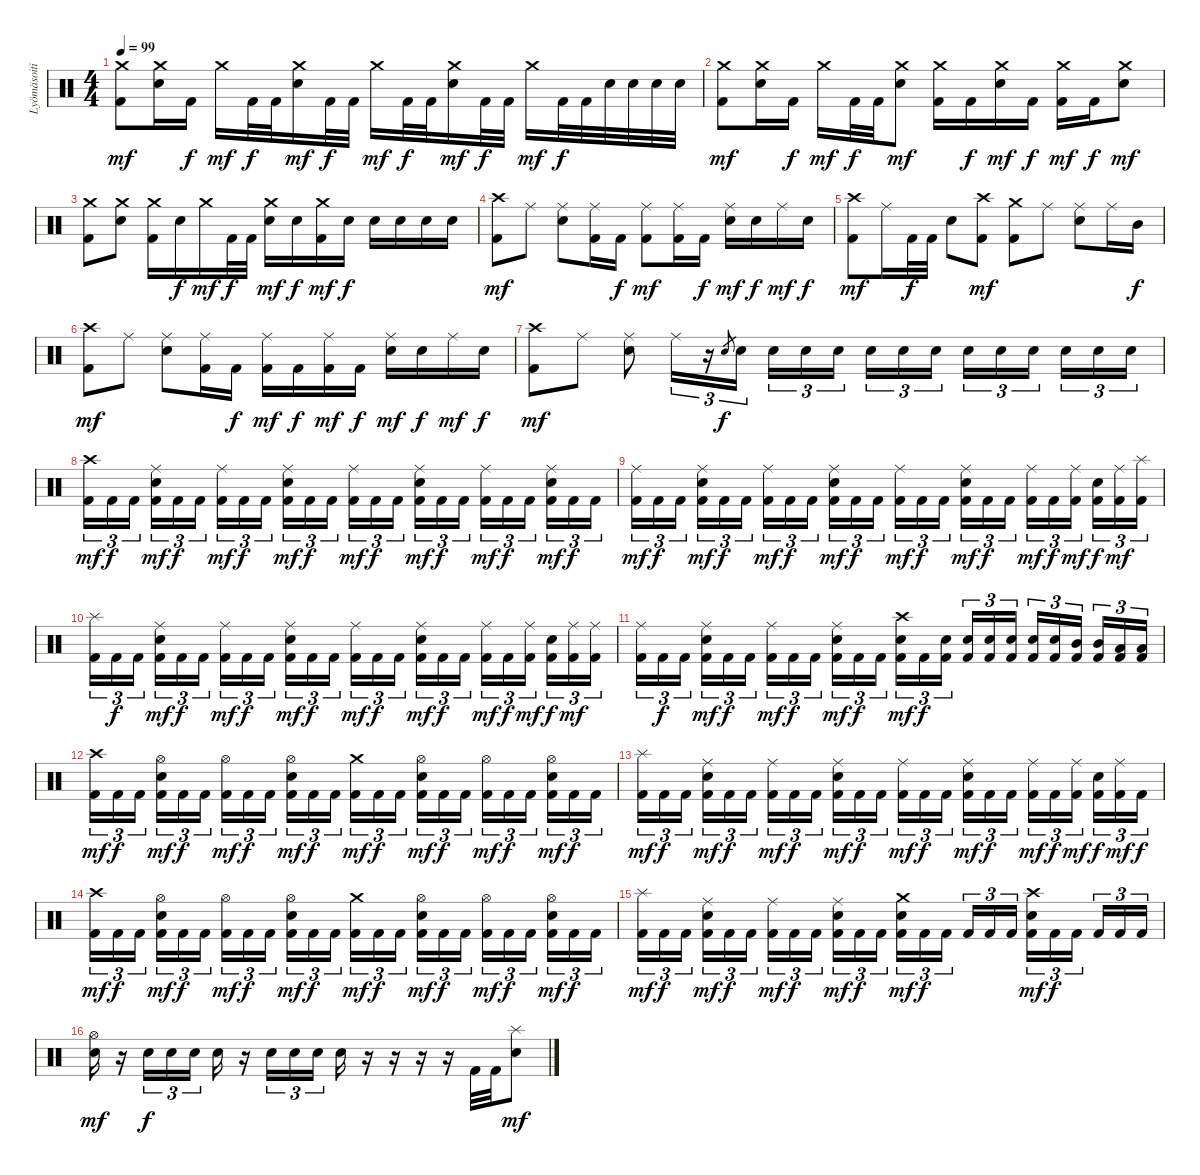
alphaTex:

\track ("Lyömäsoitin" "Lyömäsoiti") {instrument percussion}
\staff {score}
\articulation defaults
\ts (4 4)
\tempo 99
\clef neutral
\ks c
("Crash medium (hit)" "Kick (hit) 2").8{dy mf} ("Electric Snare (hit)" "Crash medium (hit)").16 "Kick (hit) 2".16{dy f} "Crash medium (hit)".16{dy mf} "Kick (hit) 2".32{dy f} "Kick (hit) 2".32 ("Electric Snare (hit)" "Crash medium (hit)").16{dy mf} "Kick (hit) 2".32{dy f} "Kick (hit) 2".32 "Crash medium (hit)".16{dy mf} "Kick (hit) 2".32{dy f} "Kick (hit) 2".32 ("Electric Snare (hit)" "Crash medium (hit)").16{dy mf} "Kick (hit) 2".32{dy f} "Kick (hit) 2".32 "Crash medium (hit)".16{dy mf} "Kick (hit) 2".32{dy f} "Kick (hit) 2".32 "Electric Snare (hit)".32 "Electric Snare (hit)".32 "Electric Snare (hit)".32 "Electric Snare (hit)".32 |
("Crash medium (hit)" "Kick (hit) 2").8{dy mf} ("Electric Snare (hit)" "Crash medium (hit)").16 "Kick (hit) 2".16{dy f} "Crash medium (hit)".16{dy mf} "Kick (hit) 2".32{dy f} "Kick (hit) 2".32 ("Electric Snare (hit)" "Crash medium (hit)").8{dy mf} ("Crash medium (hit)" "Kick (hit) 2").16 "Kick (hit) 2".16{dy f} ("Electric Snare (hit)" "Crash medium (hit)").16{dy mf} "Kick (hit) 2".16{dy f} ("Crash medium (hit)" "Kick (hit) 2").16{dy mf} "Kick (hit) 2".16{dy f} ("Electric Snare (hit)" "Crash medium (hit)").8{dy mf} |
("Crash medium (hit)" "Kick (hit) 2").8 ("Electric Snare (hit)" "Crash medium (hit)").8 ("Crash medium (hit)" "Kick (hit) 2").16 "Electric Snare (hit)".16{dy f} "Crash medium (hit)".16{dy mf} "Kick (hit) 2".32{dy f} "Kick (hit) 2".32 ("Electric Snare (hit)" "Crash medium (hit)").16{dy mf} "Electric Snare (hit)".16{dy f} ("Crash medium (hit)" "Kick (hit) 2").16{dy mf} "Electric Snare (hit)".16{dy f} "Electric Snare (hit)".16 "Electric Snare (hit)".16 "Electric Snare (hit)".16 "Electric Snare (hit)".16 |
("Crash high (hit)" "Kick (hit) 2").8{dy mf} "Ride (middle)".8 ("Electric Snare (hit)" "Ride (middle)").8 ("Ride (middle)" "Kick (hit) 2").16 "Kick (hit) 2".16{dy f} ("Ride (middle)" "Kick (hit) 2").8{dy mf} ("Ride (middle)" "Kick (hit) 2").16 "Kick (hit) 2".16{dy f} ("Electric Snare (hit)" "Ride (middle)").16{dy mf} "Electric Snare (hit)".16{dy f} "Ride (middle)".16{dy mf} "Electric Snare (hit)".16{dy f} |
("Crash high (hit)" "Kick (hit) 2").8{dy mf} "Ride (middle)".16 "Kick (hit) 2".32{dy f} "Kick (hit) 2".32 "Electric Snare (hit)".8 ("Crash high (hit)" "Kick (hit) 2").8{dy mf} ("Crash medium (hit)" "Kick (hit) 2").8 "Ride (middle)".8 ("Electric Snare (hit)" "Ride (middle)").8 "Ride (middle)".16 "Mid Tom (hit)".16{dy f} |
("Crash high (hit)" "Kick (hit) 2").8{dy mf} "Ride (middle)".8 ("Electric Snare (hit)" "Ride (middle)").8 ("Ride (middle)" "Kick (hit) 2").16 "Kick (hit) 2".16{dy f} ("Ride (middle)" "Kick (hit) 2").16{dy mf} "Kick (hit) 2".16{dy f} ("Ride (middle)" "Kick (hit) 2").16{dy mf} "Kick (hit) 2".16{dy f} ("Electric Snare (hit)" "Ride (middle)").16{dy mf} "Electric Snare (hit)".16{dy f} "Ride (middle)".16{dy mf} "Electric Snare (hit)".16{dy f} |
("Crash high (hit)" "Kick (hit) 2").8{dy mf} "Ride (middle)".8 ("Electric Snare (hit)" "Ride (middle)").8 "Ride (middle)".16{tu (3 2)} r.16{tu (3 2)} "Electric Snare (hit)".8{gr dy f} "Electric Snare (hit)".16{tu (3 2)} "Electric Snare (hit)".16{tu (3 2)} "Electric Snare (hit)".16{tu (3 2)} "Electric Snare (hit)".16{tu (3 2)} "Electric Snare (hit)".16{tu (3 2)} "Electric Snare (hit)".16{tu (3 2)} "Electric Snare (hit)".16{tu (3 2)} "Electric Snare (hit)".16{tu (3 2)} "Electric Snare (hit)".16{tu (3 2)} "Electric Snare (hit)".16{tu (3 2)} "Electric Snare (hit)".16{tu (3 2)} "Electric Snare (hit)".16{tu (3 2)} "Electric Snare (hit)".16{tu (3 2)} |
("Crash high (hit)" "Kick (hit) 2").16{tu (3 2) dy mf} "Kick (hit) 2".16{tu (3 2) dy f} "Kick (hit) 2".16{tu (3 2)} ("Electric Snare (hit)" "Ride (middle)" "Kick (hit) 2").16{tu (3 2) dy mf} "Kick (hit) 2".16{tu (3 2) dy f} "Kick (hit) 2".16{tu (3 2)} ("Ride (middle)" "Kick (hit) 2").16{tu (3 2) dy mf} "Kick (hit) 2".16{tu (3 2) dy f} "Kick (hit) 2".16{tu (3 2)} ("Electric Snare (hit)" "Ride (middle)" "Kick (hit) 2").16{tu (3 2) dy mf} "Kick (hit) 2".16{tu (3 2) dy f} "Kick (hit) 2".16{tu (3 2)} ("Ride (middle)" "Kick (hit) 2").16{tu (3 2) dy mf} "Kick (hit) 2".16{tu (3 2) dy f} "Kick (hit) 2".16{tu (3 2)} ("Electric Snare (hit)" "Ride (middle)" "Kick (hit) 2").16{tu (3 2) dy mf} "Kick (hit) 2".16{tu (3 2) dy f} "Kick (hit) 2".16{tu (3 2)} ("Ride (middle)" "Kick (hit) 2").16{tu (3 2) dy mf} "Kick (hit) 2".16{tu (3 2) dy f} "Kick (hit) 2".16{tu (3 2)} ("Electric Snare (hit)" "Ride (middle)" "Kick (hit) 2").16{tu (3 2) dy mf} "Kick (hit) 2".16{tu (3 2) dy f} "Kick (hit) 2".16{tu (3 2)} |
("Ride (middle)" "Kick (hit) 2").16{tu (3 2) dy mf} "Kick (hit) 2".16{tu (3 2) dy f} "Kick (hit) 2".16{tu (3 2)} ("Electric Snare (hit)" "Ride (middle)" "Kick (hit) 2").16{tu (3 2) dy mf} "Kick (hit) 2".16{tu (3 2) dy f} "Kick (hit) 2".16{tu (3 2)} ("Ride (middle)" "Kick (hit) 2").16{tu (3 2) dy mf} "Kick (hit) 2".16{tu (3 2) dy f} "Kick (hit) 2".16{tu (3 2)} ("Electric Snare (hit)" "Ride (middle)" "Kick (hit) 2").16{tu (3 2) dy mf} "Kick (hit) 2".16{tu (3 2) dy f} "Kick (hit) 2".16{tu (3 2)} ("Ride (middle)" "Kick (hit) 2").16{tu (3 2) dy mf} "Kick (hit) 2".16{tu (3 2) dy f} "Kick (hit) 2".16{tu (3 2)} ("Electric Snare (hit)" "Ride (middle)" "Kick (hit) 2").16{tu (3 2) dy mf} "Kick (hit) 2".16{tu (3 2) dy f} "Kick (hit) 2".16{tu (3 2)} ("Ride (middle)" "Kick (hit) 2").16{tu (3 2) dy mf} "Kick (hit) 2".16{tu (3 2) dy f} ("Ride (middle)" "Kick (hit) 2").16{tu (3 2) dy mf} ("Electric Snare (hit)" "Kick (hit) 2").16{tu (3 2) dy f} ("Ride (middle)" "Kick (hit) 2").16{tu (3 2) dy mf} ("Splash (hit)" "Kick (hit) 2").16{tu (3 2)} |
("Splash (hit)" "Kick (hit) 2").16{tu (3 2)} "Kick (hit) 2".16{tu (3 2) dy f} "Kick (hit) 2".16{tu (3 2)} ("Electric Snare (hit)" "Ride (middle)" "Kick (hit) 2").16{tu (3 2) dy mf} "Kick (hit) 2".16{tu (3 2) dy f} "Kick (hit) 2".16{tu (3 2)} ("Ride (middle)" "Kick (hit) 2").16{tu (3 2) dy mf} "Kick (hit) 2".16{tu (3 2) dy f} "Kick (hit) 2".16{tu (3 2)} ("Electric Snare (hit)" "Ride (middle)" "Kick (hit) 2").16{tu (3 2) dy mf} "Kick (hit) 2".16{tu (3 2) dy f} "Kick (hit) 2".16{tu (3 2)} ("Ride (middle)" "Kick (hit) 2").16{tu (3 2) dy mf} "Kick (hit) 2".16{tu (3 2) dy f} "Kick (hit) 2".16{tu (3 2)} ("Electric Snare (hit)" "Ride (middle)" "Kick (hit) 2").16{tu (3 2) dy mf} "Kick (hit) 2".16{tu (3 2) dy f} "Kick (hit) 2".16{tu (3 2)} ("Ride (middle)" "Kick (hit) 2").16{tu (3 2) dy mf} "Kick (hit) 2".16{tu (3 2) dy f} ("Ride (middle)" "Kick (hit) 2").16{tu (3 2) dy mf} ("Electric Snare (hit)" "Kick (hit) 2").16{tu (3 2) dy f} ("Ride (middle)" "Kick (hit) 2").16{tu (3 2) dy mf} ("Ride (middle)" "Kick (hit) 2").16{tu (3 2)} |
("Ride (middle)" "Kick (hit) 2").16{tu (3 2)} "Kick (hit) 2".16{tu (3 2) dy f} "Kick (hit) 2".16{tu (3 2)} ("Electric Snare (hit)" "Ride (middle)" "Kick (hit) 2").16{tu (3 2) dy mf} "Kick (hit) 2".16{tu (3 2) dy f} "Kick (hit) 2".16{tu (3 2)} ("Ride (middle)" "Kick (hit) 2").16{tu (3 2) dy mf} "Kick (hit) 2".16{tu (3 2) dy f} "Kick (hit) 2".16{tu (3 2)} ("Electric Snare (hit)" "Ride (middle)" "Kick (hit) 2").16{tu (3 2) dy mf} "Kick (hit) 2".16{tu (3 2) dy f} "Kick (hit) 2".16{tu (3 2)} ("Electric Snare (hit)" "Crash high (hit)" "Kick (hit) 2").16{tu (3 2) dy mf} "Kick (hit) 2".16{tu (3 2) dy f} ("Electric Snare (hit)" "Kick (hit) 2").16{tu (3 2)} ("Electric Snare (hit)" "Kick (hit) 2").16{tu (3 2)} ("Electric Snare (hit)" "Kick (hit) 2").16{tu (3 2)} ("Electric Snare (hit)" "Kick (hit) 2").16{tu (3 2)} ("Electric Snare (hit)" "Kick (hit) 2").16{tu (3 2)} ("Electric Snare (hit)" "Kick (hit) 2").16{tu (3 2)} ("Mid Tom (hit)" "Kick (hit) 2").16{tu (3 2)} ("Mid Tom (hit)" "Kick (hit) 2").16{tu (3 2)} ("Low Tom (hit)" "Kick (hit) 2").16{tu (3 2)} ("Low Tom (hit)" "Kick (hit) 2").16{tu (3 2)} |
("Crash high (hit)" "Kick (hit) 2").16{tu (3 2) dy mf} "Kick (hit) 2".16{tu (3 2) dy f} "Kick (hit) 2".16{tu (3 2)} ("Electric Snare (hit)" "Hi-Hat (open)" "Kick (hit) 2").16{tu (3 2) dy mf} "Kick (hit) 2".16{tu (3 2) dy f} "Kick (hit) 2".16{tu (3 2)} ("Hi-Hat (open)" "Kick (hit) 2").16{tu (3 2) dy mf} "Kick (hit) 2".16{tu (3 2) dy f} "Kick (hit) 2".16{tu (3 2)} ("Electric Snare (hit)" "Hi-Hat (open)" "Kick (hit) 2").16{tu (3 2) dy mf} "Kick (hit) 2".16{tu (3 2) dy f} "Kick (hit) 2".16{tu (3 2)} ("Crash medium (hit)" "Kick (hit) 2").16{tu (3 2) dy mf} "Kick (hit) 2".16{tu (3 2) dy f} "Kick (hit) 2".16{tu (3 2)} ("Electric Snare (hit)" "Hi-Hat (open)" "Kick (hit) 2").16{tu (3 2) dy mf} "Kick (hit) 2".16{tu (3 2) dy f} "Kick (hit) 2".16{tu (3 2)} ("Hi-Hat (open)" "Kick (hit) 2").16{tu (3 2) dy mf} "Kick (hit) 2".16{tu (3 2) dy f} "Kick (hit) 2".16{tu (3 2)} ("Electric Snare (hit)" "Hi-Hat (open)" "Kick (hit) 2").16{tu (3 2) dy mf} "Kick (hit) 2".16{tu (3 2) dy f} "Kick (hit) 2".16{tu (3 2)} |
("Splash (hit)" "Kick (hit) 2").16{tu (3 2) dy mf} "Kick (hit) 2".16{tu (3 2) dy f} "Kick (hit) 2".16{tu (3 2)} ("Electric Snare (hit)" "Ride (middle)" "Kick (hit) 2").16{tu (3 2) dy mf} "Kick (hit) 2".16{tu (3 2) dy f} "Kick (hit) 2".16{tu (3 2)} ("Ride (middle)" "Kick (hit) 2").16{tu (3 2) dy mf} "Kick (hit) 2".16{tu (3 2) dy f} "Kick (hit) 2".16{tu (3 2)} ("Electric Snare (hit)" "Ride (middle)" "Kick (hit) 2").16{tu (3 2) dy mf} "Kick (hit) 2".16{tu (3 2) dy f} "Kick (hit) 2".16{tu (3 2)} ("Ride (middle)" "Kick (hit) 2").16{tu (3 2) dy mf} "Kick (hit) 2".16{tu (3 2) dy f} "Kick (hit) 2".16{tu (3 2)} ("Electric Snare (hit)" "Ride (middle)" "Kick (hit) 2").16{tu (3 2) dy mf} "Kick (hit) 2".16{tu (3 2) dy f} "Kick (hit) 2".16{tu (3 2)} ("Ride (middle)" "Kick (hit) 2").16{tu (3 2) dy mf} "Kick (hit) 2".16{tu (3 2) dy f} ("Ride (middle)" "Kick (hit) 2").16{tu (3 2) dy mf} ("Electric Snare (hit)" "Kick (hit) 2").16{tu (3 2) dy f} ("Ride (middle)" "Kick (hit) 2").16{tu (3 2) dy mf} "Kick (hit) 2".16{tu (3 2) dy f} |
("Crash high (hit)" "Kick (hit) 2").16{tu (3 2) dy mf} "Kick (hit) 2".16{tu (3 2) dy f} "Kick (hit) 2".16{tu (3 2)} ("Electric Snare (hit)" "Hi-Hat (open)" "Kick (hit) 2").16{tu (3 2) dy mf} "Kick (hit) 2".16{tu (3 2) dy f} "Kick (hit) 2".16{tu (3 2)} ("Hi-Hat (open)" "Kick (hit) 2").16{tu (3 2) dy mf} "Kick (hit) 2".16{tu (3 2) dy f} "Kick (hit) 2".16{tu (3 2)} ("Electric Snare (hit)" "Hi-Hat (open)" "Kick (hit) 2").16{tu (3 2) dy mf} "Kick (hit) 2".16{tu (3 2) dy f} "Kick (hit) 2".16{tu (3 2)} ("Crash medium (hit)" "Kick (hit) 2").16{tu (3 2) dy mf} "Kick (hit) 2".16{tu (3 2) dy f} "Kick (hit) 2".16{tu (3 2)} ("Electric Snare (hit)" "Hi-Hat (open)" "Kick (hit) 2").16{tu (3 2) dy mf} "Kick (hit) 2".16{tu (3 2) dy f} "Kick (hit) 2".16{tu (3 2)} ("Hi-Hat (open)" "Kick (hit) 2").16{tu (3 2) dy mf} "Kick (hit) 2".16{tu (3 2) dy f} "Kick (hit) 2".16{tu (3 2)} ("Electric Snare (hit)" "Hi-Hat (open)" "Kick (hit) 2").16{tu (3 2) dy mf} "Kick (hit) 2".16{tu (3 2) dy f} "Kick (hit) 2".16{tu (3 2)} |
("Splash (hit)" "Kick (hit) 2").16{tu (3 2) dy mf} "Kick (hit) 2".16{tu (3 2) dy f} "Kick (hit) 2".16{tu (3 2)} ("Electric Snare (hit)" "Ride (middle)" "Kick (hit) 2").16{tu (3 2) dy mf} "Kick (hit) 2".16{tu (3 2) dy f} "Kick (hit) 2".16{tu (3 2)} ("Ride (middle)" "Kick (hit) 2").16{tu (3 2) dy mf} "Kick (hit) 2".16{tu (3 2) dy f} "Kick (hit) 2".16{tu (3 2)} ("Electric Snare (hit)" "Ride (middle)" "Kick (hit) 2").16{tu (3 2) dy mf} "Kick (hit) 2".16{tu (3 2) dy f} "Kick (hit) 2".16{tu (3 2)} ("Electric Snare (hit)" "Crash medium (hit)" "Kick (hit) 2").16{tu (3 2) dy mf} "Kick (hit) 2".16{tu (3 2) dy f} "Kick (hit) 2".16{tu (3 2)} "Kick (hit) 2".16{tu (3 2)} "Kick (hit) 2".16{tu (3 2)} "Kick (hit) 2".16{tu (3 2)} ("Electric Snare (hit)" "Crash high (hit)" "Kick (hit) 2").16{tu (3 2) dy mf} "Kick (hit) 2".16{tu (3 2) dy f} "Kick (hit) 2".16{tu (3 2)} "Kick (hit) 2".16{tu (3 2)} "Kick (hit) 2".16{tu (3 2)} "Kick (hit) 2".16{tu (3 2)} |
("Electric Snare (hit)" "Hi-Hat (open)").16{dy mf} r.16 "Electric Snare (hit)".16{tu (3 2) dy f} "Electric Snare (hit)".16{tu (3 2)} "Electric Snare (hit)".16{tu (3 2)} "Electric Snare (hit)".16 r.16 "Electric Snare (hit)".16{tu (3 2)} "Electric Snare (hit)".16{tu (3 2)} "Electric Snare (hit)".16{tu (3 2)} "Electric Snare (hit)".16 r.16 r.16 r.16 r.16 "Kick (hit) 2".32 "Kick (hit) 2".32 ("Electric Snare (hit)" "Splash (hit)").8{dy mf}
